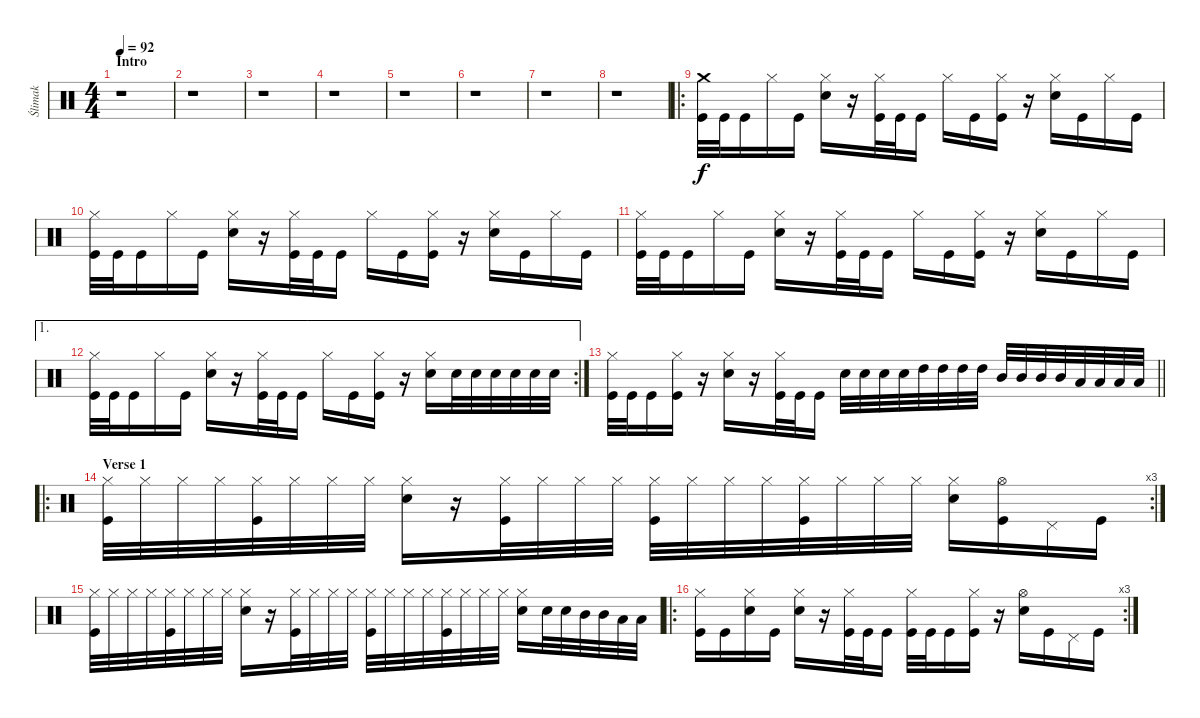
\track ("Ślimak" "Ślimak") {instrument percussion}
\staff {score}
\articulation defaults
\ts (4 4)
\section ("" "Intro")
\tempo 92
\clef neutral
\ks c
r.1{dy f} |
r.1 |
r.1 |
r.1 |
r.1 |
r.1 |
r.1 |
r.1 |
\ro
("Crash medium (hit)" "Kick (hit)").32 "Kick (hit)".32 "Kick (hit)".16 "Hi-Hat (closed)".16 "Kick (hit)".16 ("Hi-Hat (closed)" "Snare (hit) 2").16 r.16 ("Hi-Hat (closed)" "Kick (hit)").32 "Kick (hit)".32 "Kick (hit)".16 "Hi-Hat (closed)".16 "Kick (hit)".16 ("Hi-Hat (closed)" "Kick (hit)").16 r.16 ("Hi-Hat (closed)" "Snare (hit) 2").16 "Kick (hit)".16 "Hi-Hat (closed)".16 "Kick (hit)".16 |
("Hi-Hat (closed)" "Kick (hit)").32 "Kick (hit)".32 "Kick (hit)".16 "Hi-Hat (closed)".16 "Kick (hit)".16 ("Hi-Hat (closed)" "Snare (hit) 2").16 r.16 ("Hi-Hat (closed)" "Kick (hit)").32 "Kick (hit)".32 "Kick (hit)".16 "Hi-Hat (closed)".16 "Kick (hit)".16 ("Hi-Hat (closed)" "Kick (hit)").16 r.16 ("Hi-Hat (closed)" "Snare (hit) 2").16 "Kick (hit)".16 "Hi-Hat (closed)".16 "Kick (hit)".16 |
("Hi-Hat (closed)" "Kick (hit)").32 "Kick (hit)".32 "Kick (hit)".16 "Hi-Hat (closed)".16 "Kick (hit)".16 ("Hi-Hat (closed)" "Snare (hit) 2").16 r.16 ("Hi-Hat (closed)" "Kick (hit)").32 "Kick (hit)".32 "Kick (hit)".16 "Hi-Hat (closed)".16 "Kick (hit)".16 ("Hi-Hat (closed)" "Kick (hit)").16 r.16 ("Hi-Hat (closed)" "Snare (hit) 2").16 "Kick (hit)".16 "Hi-Hat (closed)".16 "Kick (hit)".16 |
\ae 1
\rc 2
("Hi-Hat (closed)" "Kick (hit)").32 "Kick (hit)".32 "Kick (hit)".16 "Hi-Hat (closed)".16 "Kick (hit)".16 ("Hi-Hat (closed)" "Snare (hit) 2").16 r.16 ("Hi-Hat (closed)" "Kick (hit)").32 "Kick (hit)".32 "Kick (hit)".16 "Hi-Hat (closed)".16 "Kick (hit)".16 ("Hi-Hat (closed)" "Kick (hit)").16 r.16 ("Hi-Hat (closed)" "Snare (hit) 2").16 "Snare (hit) 2".32 "Snare (hit) 2".32 "Snare (hit) 2".32 "Snare (hit) 2".32 "Snare (hit) 2".32 "Snare (hit) 2".32 |
\barLineRight lightlight
("Hi-Hat (closed)" "Kick (hit)").32 "Kick (hit)".32 "Kick (hit)".16 ("Hi-Hat (closed)" "Kick (hit)").16 r.16 ("Hi-Hat (closed)" "Snare (hit) 2").16 r.16 ("Hi-Hat (closed)" "Kick (hit)").32 "Kick (hit)".32 "Kick (hit)".16 "Snare (hit) 2".32 "Snare (hit) 2".32 "Snare (hit) 2".32 "Snare (hit) 2".32 "High Tom (hit)".32 "High Tom (hit)".32 "High Tom (hit)".32 "High Tom (hit)".32 "Mid Tom (hit)".32 "Mid Tom (hit)".32 "Mid Tom (hit)".32 "Mid Tom (hit)".32 "Low Tom (hit)".32 "Low Tom (hit)".32 "Low Tom (hit)".32 "Low Tom (hit)".32 |
\ro
\rc 3
\section ("" "Verse 1")
("Hi-Hat (closed)" "Kick (hit)").32 "Hi-Hat (closed)".32 "Hi-Hat (closed)".32 "Hi-Hat (closed)".32 ("Hi-Hat (closed)" "Kick (hit)").32 "Hi-Hat (closed)".32 "Hi-Hat (closed)".32 "Hi-Hat (closed)".32 ("Hi-Hat (closed)" "Snare (hit) 2").16 r.16 ("Hi-Hat (closed)" "Kick (hit)").32 "Hi-Hat (closed)".32 "Hi-Hat (closed)".32 "Hi-Hat (closed)".32 ("Hi-Hat (closed)" "Kick (hit)").32 "Hi-Hat (closed)".32 "Hi-Hat (closed)".32 "Hi-Hat (closed)".32 ("Hi-Hat (closed)" "Kick (hit)").32 "Hi-Hat (closed)".32 "Hi-Hat (closed)".32 "Hi-Hat (closed)".32 ("Hi-Hat (closed)" "Snare (hit) 2").16 ("Hi-Hat (open)" "Kick (hit)").16 "Pedal Hi-Hat (hit)".16 "Kick (hit)".16 |
("Hi-Hat (closed)" "Kick (hit)").32 "Hi-Hat (closed)".32 "Hi-Hat (closed)".32 "Hi-Hat (closed)".32 ("Hi-Hat (closed)" "Kick (hit)").32 "Hi-Hat (closed)".32 "Hi-Hat (closed)".32 "Hi-Hat (closed)".32 ("Hi-Hat (closed)" "Snare (hit) 2").16 r.16 ("Hi-Hat (closed)" "Kick (hit)").32 "Hi-Hat (closed)".32 "Hi-Hat (closed)".32 "Hi-Hat (closed)".32 ("Hi-Hat (closed)" "Kick (hit)").32 "Hi-Hat (closed)".32 "Hi-Hat (closed)".32 "Hi-Hat (closed)".32 ("Hi-Hat (closed)" "Kick (hit)").32 "Hi-Hat (closed)".32 "Hi-Hat (closed)".32 "Hi-Hat (closed)".32 ("Hi-Hat (closed)" "Snare (hit) 2").16 "Snare (hit) 2".32 "Snare (hit) 2".32 "Mid Tom (hit)".32 "Mid Tom (hit)".32 "Low Tom (hit)".32 "Low Tom (hit)".32 |
\ro
\rc 3
("Hi-Hat (closed)" "Kick (hit)").16 "Kick (hit)".16 ("Hi-Hat (closed)" "Snare (hit) 2").16 "Kick (hit)".16 ("Hi-Hat (closed)" "Snare (hit) 2").16 r.16 ("Hi-Hat (closed)" "Kick (hit)").32 "Kick (hit)".32 "Kick (hit)".16 ("Hi-Hat (closed)" "Kick (hit)").32 "Kick (hit)".32 "Kick (hit)".16 ("Hi-Hat (closed)" "Kick (hit)").16 r.16 ("Hi-Hat (open)" "Snare (hit) 2").16 "Kick (hit)".16 "Pedal Hi-Hat (hit)".16 "Kick (hit)".16
